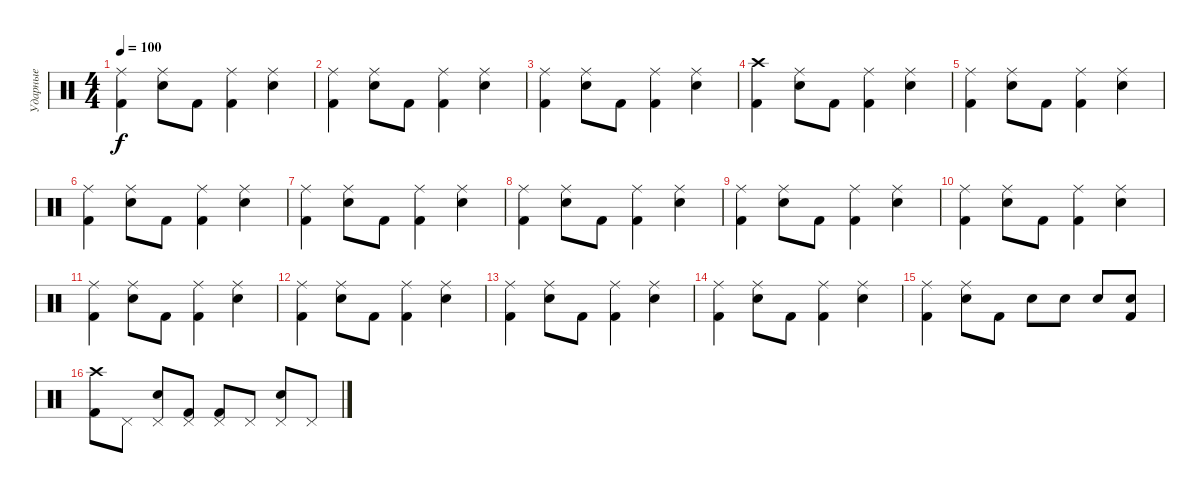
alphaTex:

\track ("Ударные" "Ударные") {instrument percussion}
\staff {score}
\articulation defaults
\ts (4 4)
\tempo 100
\clef neutral
\ks c
("Ride (middle)" "Kick (hit) 2").4{dy f} ("Ride (middle)" "Snare (hit) 2").8 "Kick (hit) 2".8 ("Ride (middle)" "Kick (hit) 2").4 ("Ride (middle)" "Snare (hit) 2").4 |
("Ride (middle)" "Kick (hit) 2").4 ("Ride (middle)" "Snare (hit) 2").8 "Kick (hit) 2".8 ("Ride (middle)" "Kick (hit) 2").4 ("Ride (middle)" "Snare (hit) 2").4 |
("Ride (middle)" "Kick (hit) 2").4 ("Ride (middle)" "Snare (hit) 2").8 "Kick (hit) 2".8 ("Ride (middle)" "Kick (hit) 2").4 ("Ride (middle)" "Snare (hit) 2").4 |
("Crash high (hit)" "Kick (hit) 2").4 ("Ride (middle)" "Snare (hit) 2").8 "Kick (hit) 2".8 ("Ride (middle)" "Kick (hit) 2").4 ("Ride (middle)" "Snare (hit) 2").4 |
("Ride (middle)" "Kick (hit) 2").4 ("Ride (middle)" "Snare (hit) 2").8 "Kick (hit) 2".8 ("Ride (middle)" "Kick (hit) 2").4 ("Ride (middle)" "Snare (hit) 2").4 |
("Ride (middle)" "Kick (hit) 2").4 ("Ride (middle)" "Snare (hit) 2").8 "Kick (hit) 2".8 ("Ride (middle)" "Kick (hit) 2").4 ("Ride (middle)" "Snare (hit) 2").4 |
("Ride (middle)" "Kick (hit) 2").4 ("Ride (middle)" "Snare (hit) 2").8 "Kick (hit) 2".8 ("Ride (middle)" "Kick (hit) 2").4 ("Ride (middle)" "Snare (hit) 2").4 |
("Ride (middle)" "Kick (hit) 2").4 ("Ride (middle)" "Snare (hit) 2").8 "Kick (hit) 2".8 ("Ride (middle)" "Kick (hit) 2").4 ("Ride (middle)" "Snare (hit) 2").4 |
("Ride (middle)" "Kick (hit) 2").4 ("Ride (middle)" "Snare (hit) 2").8 "Kick (hit) 2".8 ("Ride (middle)" "Kick (hit) 2").4 ("Ride (middle)" "Snare (hit) 2").4 |
("Ride (middle)" "Kick (hit) 2").4 ("Ride (middle)" "Snare (hit) 2").8 "Kick (hit) 2".8 ("Ride (middle)" "Kick (hit) 2").4 ("Ride (middle)" "Snare (hit) 2").4 |
("Ride (middle)" "Kick (hit) 2").4 ("Ride (middle)" "Snare (hit) 2").8 "Kick (hit) 2".8 ("Ride (middle)" "Kick (hit) 2").4 ("Ride (middle)" "Snare (hit) 2").4 |
("Ride (middle)" "Kick (hit) 2").4 ("Ride (middle)" "Snare (hit) 2").8 "Kick (hit) 2".8 ("Ride (middle)" "Kick (hit) 2").4 ("Ride (middle)" "Snare (hit) 2").4 |
("Ride (middle)" "Kick (hit) 2").4 ("Ride (middle)" "Snare (hit) 2").8 "Kick (hit) 2".8 ("Ride (middle)" "Kick (hit) 2").4 ("Ride (middle)" "Snare (hit) 2").4 |
("Ride (middle)" "Kick (hit) 2").4 ("Ride (middle)" "Snare (hit) 2").8 "Kick (hit) 2".8 ("Ride (middle)" "Kick (hit) 2").4 ("Ride (middle)" "Snare (hit) 2").4 |
("Ride (middle)" "Kick (hit) 2").4 ("Ride (middle)" "Snare (hit) 2").8 "Kick (hit) 2".8 "Snare (hit) 2".8 "Snare (hit) 2".8 "Snare (hit) 2".8 ("Kick (hit) 2" "Snare (hit) 2").8 |
("Crash high (hit)" "Kick (hit) 2").8 "Pedal Hi-Hat (hit)".8 ("Pedal Hi-Hat (hit)" "Snare (hit) 2").8 ("Pedal Hi-Hat (hit)" "Kick (hit) 2").8 ("Pedal Hi-Hat (hit)" "Kick (hit) 2").8 "Pedal Hi-Hat (hit)".8 ("Pedal Hi-Hat (hit)" "Snare (hit) 2").8 "Pedal Hi-Hat (hit)".8
